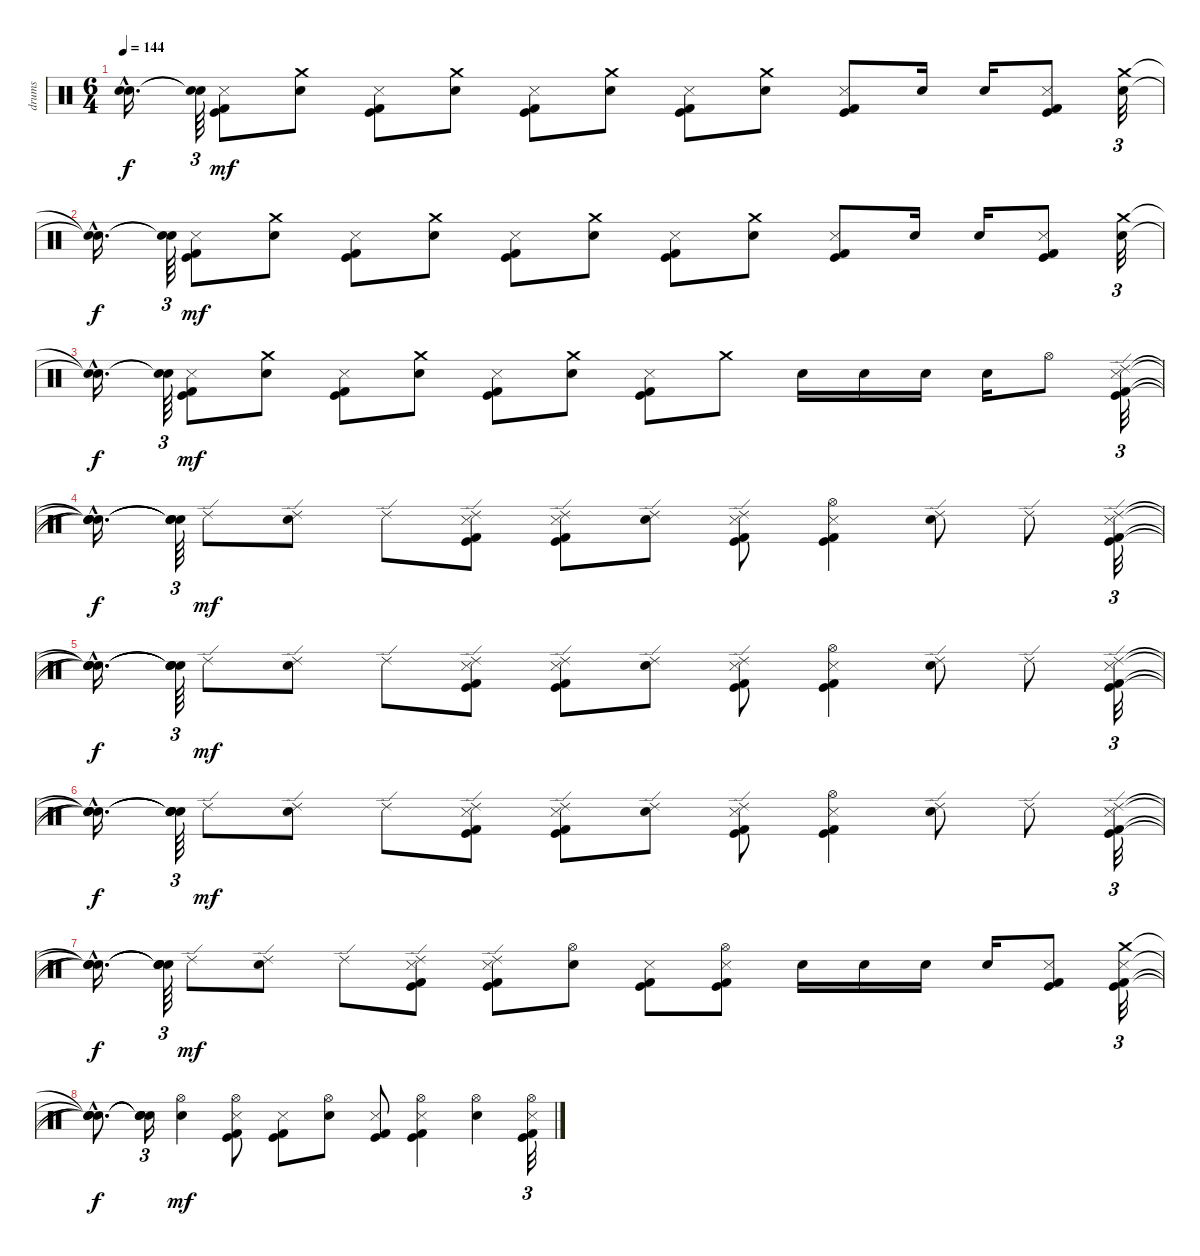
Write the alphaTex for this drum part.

\track ("drums" "drums") {instrument percussion}
\staff {score}
\articulation defaults
\ts (6 4)
\tempo 144
\clef neutral
\ks c
("Snare (hit)"{hac t} "Snare (hit)"{hac t}).16{d dy f} ("Snare (hit)"{t} "Snare (hit)"{t}).64{tu (3 2)} ("Metronome (hit)" "Kick (hit)" "Kick (hit) 2").8{dy mf} ("Snare (hit) 2" "Crash medium (hit)").8 ("Metronome (hit)" "Kick (hit)" "Kick (hit) 2").8 ("Snare (hit) 2" "Crash medium (hit)").8 ("Metronome (hit)" "Kick (hit)" "Kick (hit) 2").8 ("Snare (hit) 2" "Crash medium (hit)").8 ("Metronome (hit)" "Kick (hit)" "Kick (hit) 2").8 ("Snare (hit) 2" "Crash medium (hit)").8 ("Metronome (hit)" "Kick (hit)" "Kick (hit) 2").8 "Snare (hit) 2".16 "Snare (hit) 2".16 ("Metronome (hit)" "Kick (hit)" "Kick (hit) 2").8 ("Snare (hit) 2" "Crash medium (hit)").32{tu (3 2)} |
("Snare (hit)"{hac t} "Snare (hit)"{hac t}).16{d dy f} ("Snare (hit)"{t} "Snare (hit)"{t}).64{tu (3 2)} ("Metronome (hit)" "Kick (hit)" "Kick (hit) 2").8{dy mf} ("Snare (hit) 2" "Crash medium (hit)").8 ("Metronome (hit)" "Kick (hit)" "Kick (hit) 2").8 ("Snare (hit) 2" "Crash medium (hit)").8 ("Metronome (hit)" "Kick (hit)" "Kick (hit) 2").8 ("Snare (hit) 2" "Crash medium (hit)").8 ("Metronome (hit)" "Kick (hit)" "Kick (hit) 2").8 ("Snare (hit) 2" "Crash medium (hit)").8 ("Metronome (hit)" "Kick (hit)" "Kick (hit) 2").8 "Snare (hit) 2".16 "Snare (hit) 2".16 ("Metronome (hit)" "Kick (hit)" "Kick (hit) 2").8 ("Snare (hit) 2" "Crash medium (hit)").32{tu (3 2)} |
("Snare (hit)"{hac t} "Snare (hit)"{hac t}).16{d dy f} ("Snare (hit)"{t} "Snare (hit)"{t}).64{tu (3 2)} ("Metronome (hit)" "Kick (hit)" "Kick (hit) 2").8{dy mf} ("Snare (hit) 2" "Crash medium (hit)").8 ("Metronome (hit)" "Kick (hit)" "Kick (hit) 2").8 ("Snare (hit) 2" "Crash medium (hit)").8 ("Metronome (hit)" "Kick (hit)" "Kick (hit) 2").8 ("Snare (hit) 2" "Crash medium (hit)").8 ("Metronome (hit)" "Kick (hit)" "Kick (hit) 2").8 "Crash medium (hit)".8 "Snare (hit) 2".16 "Snare (hit) 2".16 "Snare (hit) 2".16 "Snare (hit) 2".16 "Hi-Hat (open)".8 ("Ride (edge) 2" "Metronome (hit)" "Kick (hit)" "Kick (hit) 2").32{tu (3 2)} |
("Snare (hit)"{hac t} "Snare (hit)"{hac t} "Snare (hit)"{hac t} "Snare (hit)"{hac t}).16{d dy f} ("Snare (hit)"{t} "Snare (hit)"{t} "Snare (hit)"{t} "Snare (hit)"{t}).64{tu (3 2)} "Ride (edge) 2".8{dy mf} ("Snare (hit) 2" "Ride (edge) 2").8 "Ride (edge) 2".8 ("Ride (edge) 2" "Metronome (hit)" "Kick (hit)" "Kick (hit) 2").8 ("Ride (edge) 2" "Metronome (hit)" "Kick (hit)" "Kick (hit) 2").8 ("Snare (hit) 2" "Ride (edge) 2").8 ("Ride (edge) 2" "Metronome (hit)" "Kick (hit)" "Kick (hit) 2").8 ("Hi-Hat (open)" "Metronome (hit)" "Kick (hit)" "Kick (hit) 2").4 ("Snare (hit) 2" "Ride (edge) 2").8 "Ride (edge) 2".8 ("Ride (edge) 2" "Metronome (hit)" "Kick (hit)" "Kick (hit) 2").32{tu (3 2)} |
("Snare (hit)"{hac t} "Snare (hit)"{hac t} "Snare (hit)"{hac t} "Snare (hit)"{hac t}).16{d dy f} ("Snare (hit)"{t} "Snare (hit)"{t} "Snare (hit)"{t} "Snare (hit)"{t}).64{tu (3 2)} "Ride (edge) 2".8{dy mf} ("Snare (hit) 2" "Ride (edge) 2").8 "Ride (edge) 2".8 ("Ride (edge) 2" "Metronome (hit)" "Kick (hit)" "Kick (hit) 2").8 ("Ride (edge) 2" "Metronome (hit)" "Kick (hit)" "Kick (hit) 2").8 ("Snare (hit) 2" "Ride (edge) 2").8 ("Ride (edge) 2" "Metronome (hit)" "Kick (hit)" "Kick (hit) 2").8 ("Hi-Hat (open)" "Metronome (hit)" "Kick (hit)" "Kick (hit) 2").4 ("Snare (hit) 2" "Ride (edge) 2").8 "Ride (edge) 2".8 ("Ride (edge) 2" "Metronome (hit)" "Kick (hit)" "Kick (hit) 2").32{tu (3 2)} |
("Snare (hit)"{hac t} "Snare (hit)"{hac t} "Snare (hit)"{hac t} "Snare (hit)"{hac t}).16{d dy f} ("Snare (hit)"{t} "Snare (hit)"{t} "Snare (hit)"{t} "Snare (hit)"{t}).64{tu (3 2)} "Ride (edge) 2".8{dy mf} ("Snare (hit) 2" "Ride (edge) 2").8 "Ride (edge) 2".8 ("Ride (edge) 2" "Metronome (hit)" "Kick (hit)" "Kick (hit) 2").8 ("Ride (edge) 2" "Metronome (hit)" "Kick (hit)" "Kick (hit) 2").8 ("Snare (hit) 2" "Ride (edge) 2").8 ("Ride (edge) 2" "Metronome (hit)" "Kick (hit)" "Kick (hit) 2").8 ("Hi-Hat (open)" "Metronome (hit)" "Kick (hit)" "Kick (hit) 2").4 ("Snare (hit) 2" "Ride (edge) 2").8 "Ride (edge) 2".8 ("Ride (edge) 2" "Metronome (hit)" "Kick (hit)" "Kick (hit) 2").32{tu (3 2)} |
("Snare (hit)"{hac t} "Snare (hit)"{hac t} "Snare (hit)"{hac t} "Snare (hit)"{hac t}).16{d dy f} ("Snare (hit)"{t} "Snare (hit)"{t} "Snare (hit)"{t} "Snare (hit)"{t}).64{tu (3 2)} "Ride (edge) 2".8{dy mf} ("Snare (hit) 2" "Ride (edge) 2").8 "Ride (edge) 2".8 ("Ride (edge) 2" "Metronome (hit)" "Kick (hit)" "Kick (hit) 2").8 ("Ride (edge) 2" "Metronome (hit)" "Kick (hit)" "Kick (hit) 2").8 ("Snare (hit) 2" "Hi-Hat (open)").8 ("Metronome (hit)" "Kick (hit)" "Kick (hit) 2").8 ("Hi-Hat (open)" "Metronome (hit)" "Kick (hit)" "Kick (hit) 2").8 "Snare (hit) 2".16 "Snare (hit) 2".16 "Snare (hit) 2".16 "Snare (hit) 2".16 ("Metronome (hit)" "Kick (hit)" "Kick (hit) 2").8 ("Crash medium (hit)" "Metronome (hit)" "Kick (hit)" "Kick (hit) 2").32{tu (3 2)} |
("Snare (hit)"{hac t} "Snare (hit)"{hac t} "Snare (hit)"{hac t} "Snare (hit)"{hac t}).8{d dy f} ("Snare (hit)"{t} "Snare (hit)"{t} "Snare (hit)"{t} "Snare (hit)"{t}).16{tu (3 2)} ("Snare (hit) 2" "Hi-Hat (open)").4{dy mf} ("Hi-Hat (open)" "Metronome (hit)" "Kick (hit)" "Kick (hit) 2").8 ("Metronome (hit)" "Kick (hit)" "Kick (hit) 2").8 ("Snare (hit) 2" "Hi-Hat (open)").8 ("Metronome (hit)" "Kick (hit)" "Kick (hit) 2").8 ("Hi-Hat (open)" "Metronome (hit)" "Kick (hit)" "Kick (hit) 2").4 ("Snare (hit) 2" "Hi-Hat (open)").4 ("Hi-Hat (open)" "Metronome (hit)" "Kick (hit)" "Kick (hit) 2").32{tu (3 2)}
